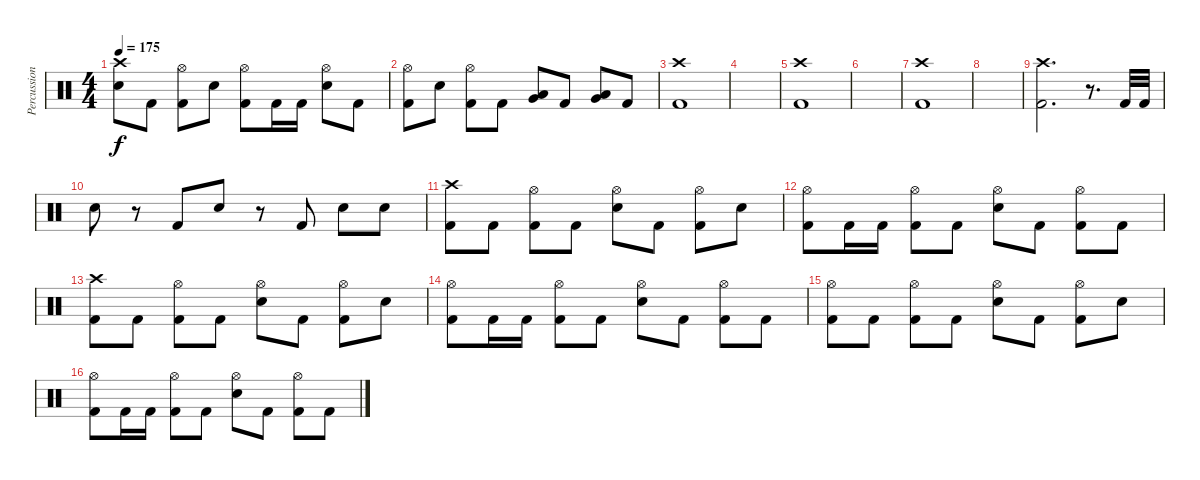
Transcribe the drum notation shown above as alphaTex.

\track ("Percussion" "Percussion") {instrument percussion}
\staff {score}
\articulation defaults
\ts (4 4)
\tempo 175
\clef neutral
\ks c
("Crash high (hit)" "Electric Snare (hit)").8{dy f} "Kick (hit) 2".8 ("Hi-Hat (open)" "Kick (hit) 2").8 "Electric Snare (hit)".8 ("Hi-Hat (open)" "Kick (hit) 2").8 "Kick (hit) 2".16 "Kick (hit) 2".16 ("Hi-Hat (open)" "Electric Snare (hit)").8 "Kick (hit) 2".8 |
("Hi-Hat (open)" "Kick (hit) 2").8 "Electric Snare (hit)".8 ("Hi-Hat (open)" "Kick (hit) 2").8 "Kick (hit) 2".8 ("Low Tom (hit)" "Very Low Tom (hit)").8 "Kick (hit) 2".8 ("Very Low Tom (hit)" "Low Floor Tom (hit)").8 "Kick (hit) 2".8 |
("Crash high (hit)" "Kick (hit) 2").1 |
|
("Crash high (hit)" "Kick (hit) 2").1 |
|
("Crash high (hit)" "Kick (hit) 2").1 |
|
("Crash high (hit)" "Kick (hit) 2").2{d} r.8{d} "Kick (hit) 2".32 "Kick (hit) 2".32 |
"Electric Snare (hit)".8 r.8 "Kick (hit) 2".8 "Electric Snare (hit)".8 r.8 "Kick (hit) 2".8 "Electric Snare (hit)".8 "Electric Snare (hit)".8 |
("Crash high (hit)" "Kick (hit) 2").8 "Kick (hit) 2".8 ("Hi-Hat (open)" "Kick (hit) 2").8 "Kick (hit) 2".8 ("Hi-Hat (open)" "Electric Snare (hit)").8 "Kick (hit) 2".8 ("Hi-Hat (open)" "Kick (hit) 2").8 "Electric Snare (hit)".8 |
("Hi-Hat (open)" "Kick (hit) 2").8 "Kick (hit) 2".16 "Kick (hit) 2".16 ("Hi-Hat (open)" "Kick (hit) 2").8 "Kick (hit) 2".8 ("Hi-Hat (open)" "Electric Snare (hit)").8 "Kick (hit) 2".8 ("Hi-Hat (open)" "Kick (hit) 2").8 "Kick (hit) 2".8 |
("Crash high (hit)" "Kick (hit) 2").8 "Kick (hit) 2".8 ("Hi-Hat (open)" "Kick (hit) 2").8 "Kick (hit) 2".8 ("Hi-Hat (open)" "Electric Snare (hit)").8 "Kick (hit) 2".8 ("Hi-Hat (open)" "Kick (hit) 2").8 "Electric Snare (hit)".8 |
("Hi-Hat (open)" "Kick (hit) 2").8 "Kick (hit) 2".16 "Kick (hit) 2".16 ("Hi-Hat (open)" "Kick (hit) 2").8 "Kick (hit) 2".8 ("Hi-Hat (open)" "Electric Snare (hit)").8 "Kick (hit) 2".8 ("Hi-Hat (open)" "Kick (hit) 2").8 "Kick (hit) 2".8 |
("Hi-Hat (open)" "Kick (hit) 2").8 "Kick (hit) 2".8 ("Hi-Hat (open)" "Kick (hit) 2").8 "Kick (hit) 2".8 ("Hi-Hat (open)" "Electric Snare (hit)").8 "Kick (hit) 2".8 ("Hi-Hat (open)" "Kick (hit) 2").8 "Electric Snare (hit)".8 |
("Hi-Hat (open)" "Kick (hit) 2").8 "Kick (hit) 2".16 "Kick (hit) 2".16 ("Hi-Hat (open)" "Kick (hit) 2").8 "Kick (hit) 2".8 ("Hi-Hat (open)" "Electric Snare (hit)").8 "Kick (hit) 2".8 ("Hi-Hat (open)" "Kick (hit) 2").8 "Kick (hit) 2".8
